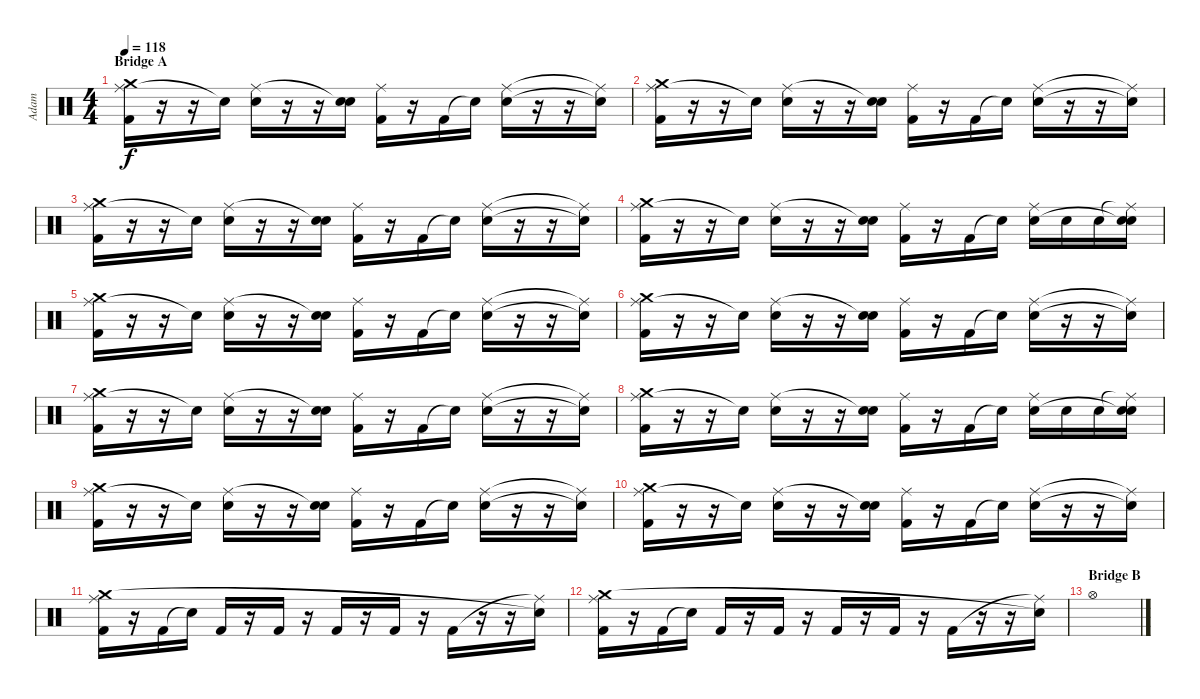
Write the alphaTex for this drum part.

\track ("Adam" "Adam") {instrument percussion}
\staff {score}
\articulation defaults
\ts (4 4)
\section ("" "Bridge A")
\tempo 118
\clef neutral
\ks c
("Ride (middle)" "Crash medium (hit)" "Kick (hit) 2").16{dy f} r.16 r.16 "Snare (hit)"{t}.16 ("Ride (middle)" "Snare (hit) 2").16 r.16 r.16 ("Snare (hit)"{t} "Snare (hit) 2").16 ("Ride (middle)" "Kick (hit) 2").16 r.16 "Kick (hit) 2".16 "Snare (hit)"{t}.16 ("Ride (middle)" "Snare (hit) 2").16 r.16 r.16 ("Ride (middle)"{t} "Snare (hit)"{t}).16 |
("Ride (middle)" "Crash medium (hit)" "Kick (hit) 2").16 r.16 r.16 "Snare (hit)"{t}.16 ("Ride (middle)" "Snare (hit) 2").16 r.16 r.16 ("Snare (hit)"{t} "Snare (hit) 2").16 ("Ride (middle)" "Kick (hit) 2").16 r.16 "Kick (hit) 2".16 "Snare (hit)"{t}.16 ("Ride (middle)" "Snare (hit) 2").16 r.16 r.16 ("Ride (middle)"{t} "Snare (hit)"{t}).16 |
("Ride (middle)" "Crash medium (hit)" "Kick (hit) 2").16 r.16 r.16 "Snare (hit)"{t}.16 ("Ride (middle)" "Snare (hit) 2").16 r.16 r.16 ("Snare (hit)"{t} "Snare (hit) 2").16 ("Ride (middle)" "Kick (hit) 2").16 r.16 "Kick (hit) 2".16 "Snare (hit)"{t}.16 ("Ride (middle)" "Snare (hit) 2").16 r.16 r.16 ("Ride (middle)"{t} "Snare (hit)"{t}).16 |
("Ride (middle)" "Crash medium (hit)" "Kick (hit) 2").16 r.16 r.16 "Snare (hit)"{t}.16 ("Ride (middle)" "Snare (hit) 2").16 r.16 r.16 ("Snare (hit)"{t} "Snare (hit) 2").16 ("Ride (middle)" "Kick (hit) 2").16 r.16 "Kick (hit) 2".16 "Snare (hit)"{t}.16 ("Ride (middle)" "Snare (hit) 2").16 "Snare (hit) 2".16 "Snare (hit) 2".16 ("Ride (middle)"{t} "Snare (hit)"{t} "Snare (hit) 2").16 |
("Ride (middle)" "Crash medium (hit)" "Kick (hit) 2").16 r.16 r.16 "Snare (hit)"{t}.16 ("Ride (middle)" "Snare (hit) 2").16 r.16 r.16 ("Snare (hit)"{t} "Snare (hit) 2").16 ("Ride (middle)" "Kick (hit) 2").16 r.16 "Kick (hit) 2".16 "Snare (hit)"{t}.16 ("Ride (middle)" "Snare (hit) 2").16 r.16 r.16 ("Ride (middle)"{t} "Snare (hit)"{t}).16 |
("Ride (middle)" "Crash medium (hit)" "Kick (hit) 2").16 r.16 r.16 "Snare (hit)"{t}.16 ("Ride (middle)" "Snare (hit) 2").16 r.16 r.16 ("Snare (hit)"{t} "Snare (hit) 2").16 ("Ride (middle)" "Kick (hit) 2").16 r.16 "Kick (hit) 2".16 "Snare (hit)"{t}.16 ("Ride (middle)" "Snare (hit) 2").16 r.16 r.16 ("Ride (middle)"{t} "Snare (hit)"{t}).16 |
("Ride (middle)" "Crash medium (hit)" "Kick (hit) 2").16 r.16 r.16 "Snare (hit)"{t}.16 ("Ride (middle)" "Snare (hit) 2").16 r.16 r.16 ("Snare (hit)"{t} "Snare (hit) 2").16 ("Ride (middle)" "Kick (hit) 2").16 r.16 "Kick (hit) 2".16 "Snare (hit)"{t}.16 ("Ride (middle)" "Snare (hit) 2").16 r.16 r.16 ("Ride (middle)"{t} "Snare (hit)"{t}).16 |
("Ride (middle)" "Crash medium (hit)" "Kick (hit) 2").16 r.16 r.16 "Snare (hit)"{t}.16 ("Ride (middle)" "Snare (hit) 2").16 r.16 r.16 ("Snare (hit)"{t} "Snare (hit) 2").16 ("Ride (middle)" "Kick (hit) 2").16 r.16 "Kick (hit) 2".16 "Snare (hit)"{t}.16 ("Ride (middle)" "Snare (hit) 2").16 "Snare (hit) 2".16 "Snare (hit) 2".16 ("Ride (middle)"{t} "Snare (hit)"{t} "Snare (hit) 2").16 |
("Ride (middle)" "Crash medium (hit)" "Kick (hit) 2").16 r.16 r.16 "Snare (hit)"{t}.16 ("Ride (middle)" "Snare (hit) 2").16 r.16 r.16 ("Snare (hit)"{t} "Snare (hit) 2").16 ("Ride (middle)" "Kick (hit) 2").16 r.16 "Kick (hit) 2".16 "Snare (hit)"{t}.16 ("Ride (middle)" "Snare (hit) 2").16 r.16 r.16 ("Ride (middle)"{t} "Snare (hit)"{t}).16 |
("Ride (middle)" "Crash medium (hit)" "Kick (hit) 2").16 r.16 r.16 "Snare (hit)"{t}.16 ("Ride (middle)" "Snare (hit) 2").16 r.16 r.16 ("Snare (hit)"{t} "Snare (hit) 2").16 ("Ride (middle)" "Kick (hit) 2").16 r.16 "Kick (hit) 2".16 "Snare (hit)"{t}.16 ("Ride (middle)" "Snare (hit) 2").16 r.16 r.16 ("Ride (middle)"{t} "Snare (hit)"{t}).16 |
("Ride (middle)" "Crash medium (hit)" "Kick (hit) 2").16 r.16 "Kick (hit) 2".16 "Snare (hit)"{t}.16 "Kick (hit) 2".16 r.16 "Kick (hit) 2".16 r.16 "Kick (hit) 2".16 r.16 "Kick (hit) 2".16 r.16 "Kick (hit) 2".16 r.16 r.16 ("Ride (middle)"{t} "Snare (hit)"{t}).16 |
("Ride (middle)" "Crash medium (hit)" "Kick (hit) 2").16 r.16 "Kick (hit) 2".16 "Snare (hit)"{t}.16 "Kick (hit) 2".16 r.16 "Kick (hit) 2".16 r.16 "Kick (hit) 2".16 r.16 "Kick (hit) 2".16 r.16 "Kick (hit) 2".16 r.16 r.16 ("Ride (middle)"{t} "Snare (hit)"{t}).16 |
\section ("" "Bridge B")
"Hi-Hat (open)".1
